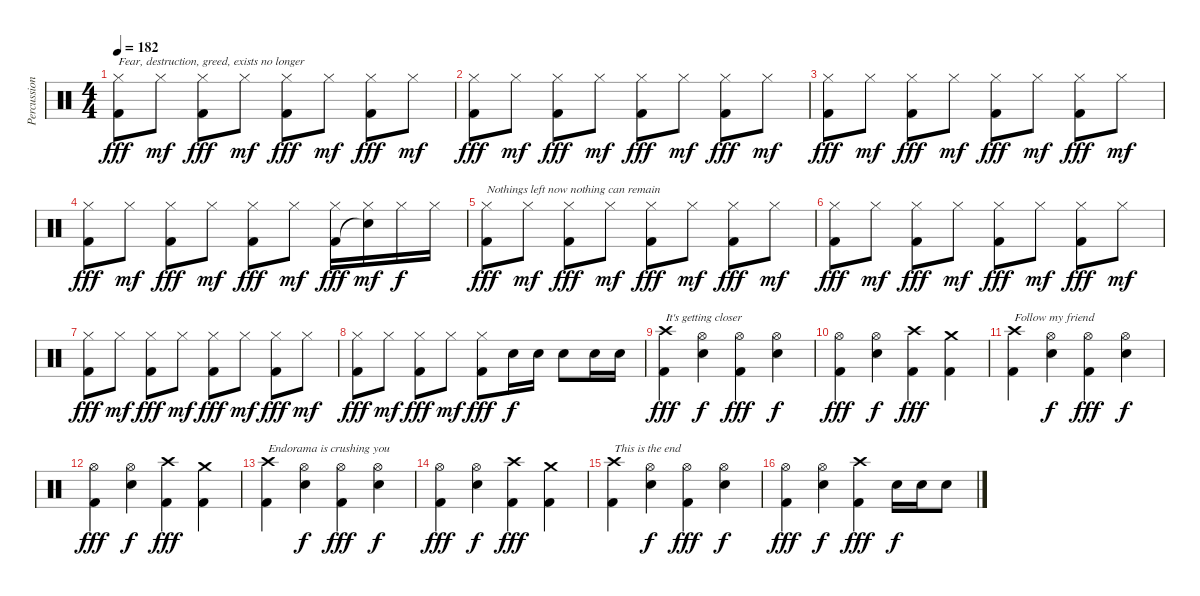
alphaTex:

\track ("Percussion" "Percussion") {instrument percussion}
\staff {score}
\articulation defaults
\ts (4 4)
\tempo 182
\clef neutral
\ks c
("Hi-Hat (closed)" "Kick (hit) 2").8{txt "Fear, destruction, greed, exists no longer" dy fff} "Hi-Hat (closed)".8{dy mf} ("Hi-Hat (closed)" "Kick (hit) 2").8{dy fff} "Hi-Hat (closed)".8{dy mf} ("Hi-Hat (closed)" "Kick (hit) 2").8{dy fff} "Hi-Hat (closed)".8{dy mf} ("Hi-Hat (closed)" "Kick (hit) 2").8{dy fff} "Hi-Hat (closed)".8{dy mf} |
("Hi-Hat (closed)" "Kick (hit) 2").8{dy fff} "Hi-Hat (closed)".8{dy mf} ("Hi-Hat (closed)" "Kick (hit) 2").8{dy fff} "Hi-Hat (closed)".8{dy mf} ("Hi-Hat (closed)" "Kick (hit) 2").8{dy fff} "Hi-Hat (closed)".8{dy mf} ("Hi-Hat (closed)" "Kick (hit) 2").8{dy fff} "Hi-Hat (closed)".8{dy mf} |
("Hi-Hat (closed)" "Kick (hit) 2").8{dy fff} "Hi-Hat (closed)".8{dy mf} ("Hi-Hat (closed)" "Kick (hit) 2").8{dy fff} "Hi-Hat (closed)".8{dy mf} ("Hi-Hat (closed)" "Kick (hit) 2").8{dy fff} "Hi-Hat (closed)".8{dy mf} ("Hi-Hat (closed)" "Kick (hit) 2").8{dy fff} "Hi-Hat (closed)".8{dy mf} |
("Hi-Hat (closed)" "Kick (hit) 2").8{dy fff} "Hi-Hat (closed)".8{dy mf} ("Hi-Hat (closed)" "Kick (hit) 2").8{dy fff} "Hi-Hat (closed)".8{dy mf} ("Hi-Hat (closed)" "Kick (hit) 2").8{dy fff} "Hi-Hat (closed)".8{dy mf} ("Hi-Hat (closed)" "Kick (hit) 2").16{dy fff} ("Hi-Hat (closed)" "Snare (hit)"{t}).16{dy mf} "Hi-Hat (closed)".16{dy f} "Hi-Hat (closed)".16 |
("Hi-Hat (closed)" "Kick (hit) 2").8{txt "Nothings left now nothing can remain" dy fff} "Hi-Hat (closed)".8{dy mf} ("Hi-Hat (closed)" "Kick (hit) 2").8{dy fff} "Hi-Hat (closed)".8{dy mf} ("Hi-Hat (closed)" "Kick (hit) 2").8{dy fff} "Hi-Hat (closed)".8{dy mf} ("Hi-Hat (closed)" "Kick (hit) 2").8{dy fff} "Hi-Hat (closed)".8{dy mf} |
("Hi-Hat (closed)" "Kick (hit) 2").8{dy fff} "Hi-Hat (closed)".8{dy mf} ("Hi-Hat (closed)" "Kick (hit) 2").8{dy fff} "Hi-Hat (closed)".8{dy mf} ("Hi-Hat (closed)" "Kick (hit) 2").8{dy fff} "Hi-Hat (closed)".8{dy mf} ("Hi-Hat (closed)" "Kick (hit) 2").8{dy fff} "Hi-Hat (closed)".8{dy mf} |
("Hi-Hat (closed)" "Kick (hit) 2").8{dy fff} "Hi-Hat (closed)".8{dy mf} ("Hi-Hat (closed)" "Kick (hit) 2").8{dy fff} "Hi-Hat (closed)".8{dy mf} ("Hi-Hat (closed)" "Kick (hit) 2").8{dy fff} "Hi-Hat (closed)".8{dy mf} ("Hi-Hat (closed)" "Kick (hit) 2").8{dy fff} "Hi-Hat (closed)".8{dy mf} |
("Hi-Hat (closed)" "Kick (hit) 2").8{dy fff} "Hi-Hat (closed)".8{dy mf} ("Hi-Hat (closed)" "Kick (hit) 2").8{dy fff} "Hi-Hat (closed)".8{dy mf} ("Hi-Hat (closed)" "Kick (hit) 2").8{dy fff} "Snare (hit) 2".16{dy f} "Snare (hit) 2".16 "Snare (hit) 2".8 "Snare (hit) 2".16 "Snare (hit) 2".16 |
("Crash high (hit)" "Kick (hit) 2").4{txt "It's getting closer" dy fff} ("Hi-Hat (open)" "Snare (hit) 2").4{dy f} ("Hi-Hat (open)" "Kick (hit) 2").4{dy fff} ("Hi-Hat (open)" "Snare (hit) 2").4{dy f} |
("Hi-Hat (open)" "Kick (hit) 2").4{dy fff} ("Hi-Hat (open)" "Snare (hit) 2").4{dy f} ("Crash high (hit)" "Kick (hit) 2").4{dy fff} ("Crash medium (hit)" "Kick (hit) 2").4 |
("Crash high (hit)" "Kick (hit) 2").4{txt "Follow my friend"} ("Hi-Hat (open)" "Snare (hit) 2").4{dy f} ("Hi-Hat (open)" "Kick (hit) 2").4{dy fff} ("Hi-Hat (open)" "Snare (hit) 2").4{dy f} |
("Hi-Hat (open)" "Kick (hit) 2").4{dy fff} ("Hi-Hat (open)" "Snare (hit) 2").4{dy f} ("Crash high (hit)" "Kick (hit) 2").4{dy fff} ("Crash medium (hit)" "Kick (hit) 2").4 |
("Crash high (hit)" "Kick (hit) 2").4{txt "Endorama is crushing you"} ("Hi-Hat (open)" "Snare (hit) 2").4{dy f} ("Hi-Hat (open)" "Kick (hit) 2").4{dy fff} ("Hi-Hat (open)" "Snare (hit) 2").4{dy f} |
("Hi-Hat (open)" "Kick (hit) 2").4{dy fff} ("Hi-Hat (open)" "Snare (hit) 2").4{dy f} ("Crash high (hit)" "Kick (hit) 2").4{dy fff} ("Crash medium (hit)" "Kick (hit) 2").4 |
("Crash high (hit)" "Kick (hit) 2").4{txt "This is the end"} ("Hi-Hat (open)" "Snare (hit) 2").4{dy f} ("Hi-Hat (open)" "Kick (hit) 2").4{dy fff} ("Hi-Hat (open)" "Snare (hit) 2").4{dy f} |
("Hi-Hat (open)" "Kick (hit) 2").4{dy fff} ("Hi-Hat (open)" "Snare (hit) 2").4{dy f} ("Crash high (hit)" "Kick (hit) 2").4{dy fff} "Snare (hit) 2".16{dy f} "Snare (hit) 2".16 "Snare (hit) 2".8
